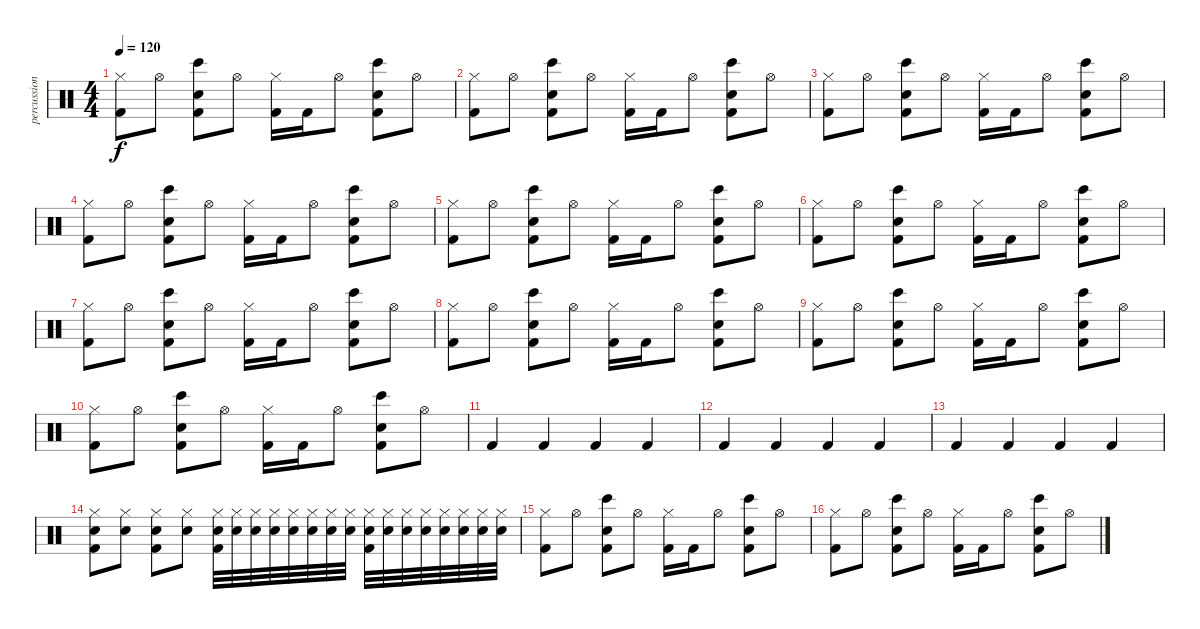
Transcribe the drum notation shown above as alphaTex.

\track ("percussion" "percussion") {instrument percussion}
\staff {score}
\articulation defaults
\ts (4 4)
\tempo 120
\clef neutral
\ks c
("Hi-Hat (closed)" "Kick (hit) 2").8{dy f} "Hi-Hat (open)".8 ("Hand Clap (hit)" "Bongo High (hit)" "Kick (hit) 2").8 "Hi-Hat (open)".8 ("Hi-Hat (closed)" "Kick (hit) 2").16 "Kick (hit) 2".16 "Hi-Hat (open)".8 ("Hand Clap (hit)" "Bongo High (hit)" "Kick (hit) 2").8 "Hi-Hat (open)".8 |
("Hi-Hat (closed)" "Kick (hit) 2").8 "Hi-Hat (open)".8 ("Hand Clap (hit)" "Bongo High (hit)" "Kick (hit) 2").8 "Hi-Hat (open)".8 ("Hi-Hat (closed)" "Kick (hit) 2").16 "Kick (hit) 2".16 "Hi-Hat (open)".8 ("Hand Clap (hit)" "Bongo High (hit)" "Kick (hit) 2").8 "Hi-Hat (open)".8 |
("Hi-Hat (closed)" "Kick (hit) 2").8 "Hi-Hat (open)".8 ("Hand Clap (hit)" "Bongo High (hit)" "Kick (hit) 2").8 "Hi-Hat (open)".8 ("Hi-Hat (closed)" "Kick (hit) 2").16 "Kick (hit) 2".16 "Hi-Hat (open)".8 ("Hand Clap (hit)" "Bongo High (hit)" "Kick (hit) 2").8 "Hi-Hat (open)".8 |
("Hi-Hat (closed)" "Kick (hit) 2").8 "Hi-Hat (open)".8 ("Hand Clap (hit)" "Bongo High (hit)" "Kick (hit) 2").8 "Hi-Hat (open)".8 ("Hi-Hat (closed)" "Kick (hit) 2").16 "Kick (hit) 2".16 "Hi-Hat (open)".8 ("Hand Clap (hit)" "Bongo High (hit)" "Kick (hit) 2").8 "Hi-Hat (open)".8 |
("Hi-Hat (closed)" "Kick (hit) 2").8 "Hi-Hat (open)".8 ("Hand Clap (hit)" "Bongo High (hit)" "Kick (hit) 2").8 "Hi-Hat (open)".8 ("Hi-Hat (closed)" "Kick (hit) 2").16 "Kick (hit) 2".16 "Hi-Hat (open)".8 ("Hand Clap (hit)" "Bongo High (hit)" "Kick (hit) 2").8 "Hi-Hat (open)".8 |
("Hi-Hat (closed)" "Kick (hit) 2").8 "Hi-Hat (open)".8 ("Hand Clap (hit)" "Bongo High (hit)" "Kick (hit) 2").8 "Hi-Hat (open)".8 ("Hi-Hat (closed)" "Kick (hit) 2").16 "Kick (hit) 2".16 "Hi-Hat (open)".8 ("Hand Clap (hit)" "Bongo High (hit)" "Kick (hit) 2").8 "Hi-Hat (open)".8 |
("Hi-Hat (closed)" "Kick (hit) 2").8 "Hi-Hat (open)".8 ("Hand Clap (hit)" "Bongo High (hit)" "Kick (hit) 2").8 "Hi-Hat (open)".8 ("Hi-Hat (closed)" "Kick (hit) 2").16 "Kick (hit) 2".16 "Hi-Hat (open)".8 ("Hand Clap (hit)" "Bongo High (hit)" "Kick (hit) 2").8 "Hi-Hat (open)".8 |
("Hi-Hat (closed)" "Kick (hit) 2").8 "Hi-Hat (open)".8 ("Hand Clap (hit)" "Bongo High (hit)" "Kick (hit) 2").8 "Hi-Hat (open)".8 ("Hi-Hat (closed)" "Kick (hit) 2").16 "Kick (hit) 2".16 "Hi-Hat (open)".8 ("Hand Clap (hit)" "Bongo High (hit)" "Kick (hit) 2").8 "Hi-Hat (open)".8 |
("Hi-Hat (closed)" "Kick (hit) 2").8 "Hi-Hat (open)".8 ("Hand Clap (hit)" "Bongo High (hit)" "Kick (hit) 2").8 "Hi-Hat (open)".8 ("Hi-Hat (closed)" "Kick (hit) 2").16 "Kick (hit) 2".16 "Hi-Hat (open)".8 ("Hand Clap (hit)" "Bongo High (hit)" "Kick (hit) 2").8 "Hi-Hat (open)".8 |
("Hi-Hat (closed)" "Kick (hit) 2").8 "Hi-Hat (open)".8 ("Hand Clap (hit)" "Bongo High (hit)" "Kick (hit) 2").8 "Hi-Hat (open)".8 ("Hi-Hat (closed)" "Kick (hit) 2").16 "Kick (hit) 2".16 "Hi-Hat (open)".8 ("Hand Clap (hit)" "Bongo High (hit)" "Kick (hit) 2").8 "Hi-Hat (open)".8 |
"Kick (hit) 2".4 "Kick (hit) 2".4 "Kick (hit) 2".4 "Kick (hit) 2".4 |
"Kick (hit) 2".4 "Kick (hit) 2".4 "Kick (hit) 2".4 "Kick (hit) 2".4 |
"Kick (hit) 2".4 "Kick (hit) 2".4 "Kick (hit) 2".4 "Kick (hit) 2".4 |
("Electric Snare (hit)" "Hi-Hat (closed)" "Kick (hit) 2").8 ("Electric Snare (hit)" "Hi-Hat (closed)").8 ("Electric Snare (hit)" "Hi-Hat (closed)" "Kick (hit) 2").8 ("Electric Snare (hit)" "Hi-Hat (closed)").8 ("Electric Snare (hit)" "Hi-Hat (closed)" "Kick (hit) 2").32 ("Electric Snare (hit)" "Hi-Hat (closed)").32 ("Electric Snare (hit)" "Hi-Hat (closed)").32 ("Electric Snare (hit)" "Hi-Hat (closed)").32 ("Electric Snare (hit)" "Hi-Hat (closed)").32 ("Electric Snare (hit)" "Hi-Hat (closed)").32 ("Electric Snare (hit)" "Hi-Hat (closed)").32 ("Electric Snare (hit)" "Hi-Hat (closed)").32 ("Electric Snare (hit)" "Hi-Hat (closed)" "Kick (hit) 2").32 ("Electric Snare (hit)" "Hi-Hat (closed)").32 ("Electric Snare (hit)" "Hi-Hat (closed)").32 ("Electric Snare (hit)" "Hi-Hat (closed)").32 ("Electric Snare (hit)" "Hi-Hat (closed)").32 ("Electric Snare (hit)" "Hi-Hat (closed)").32 ("Electric Snare (hit)" "Hi-Hat (closed)").32 ("Electric Snare (hit)" "Hi-Hat (closed)").32 |
("Hi-Hat (closed)" "Kick (hit) 2").8 "Hi-Hat (open)".8 ("Hand Clap (hit)" "Bongo High (hit)" "Kick (hit) 2").8 "Hi-Hat (open)".8 ("Hi-Hat (closed)" "Kick (hit) 2").16 "Kick (hit) 2".16 "Hi-Hat (open)".8 ("Hand Clap (hit)" "Bongo High (hit)" "Kick (hit) 2").8 "Hi-Hat (open)".8 |
("Hi-Hat (closed)" "Kick (hit) 2").8 "Hi-Hat (open)".8 ("Hand Clap (hit)" "Bongo High (hit)" "Kick (hit) 2").8 "Hi-Hat (open)".8 ("Hi-Hat (closed)" "Kick (hit) 2").16 "Kick (hit) 2".16 "Hi-Hat (open)".8 ("Hand Clap (hit)" "Bongo High (hit)" "Kick (hit) 2").8 "Hi-Hat (open)".8
